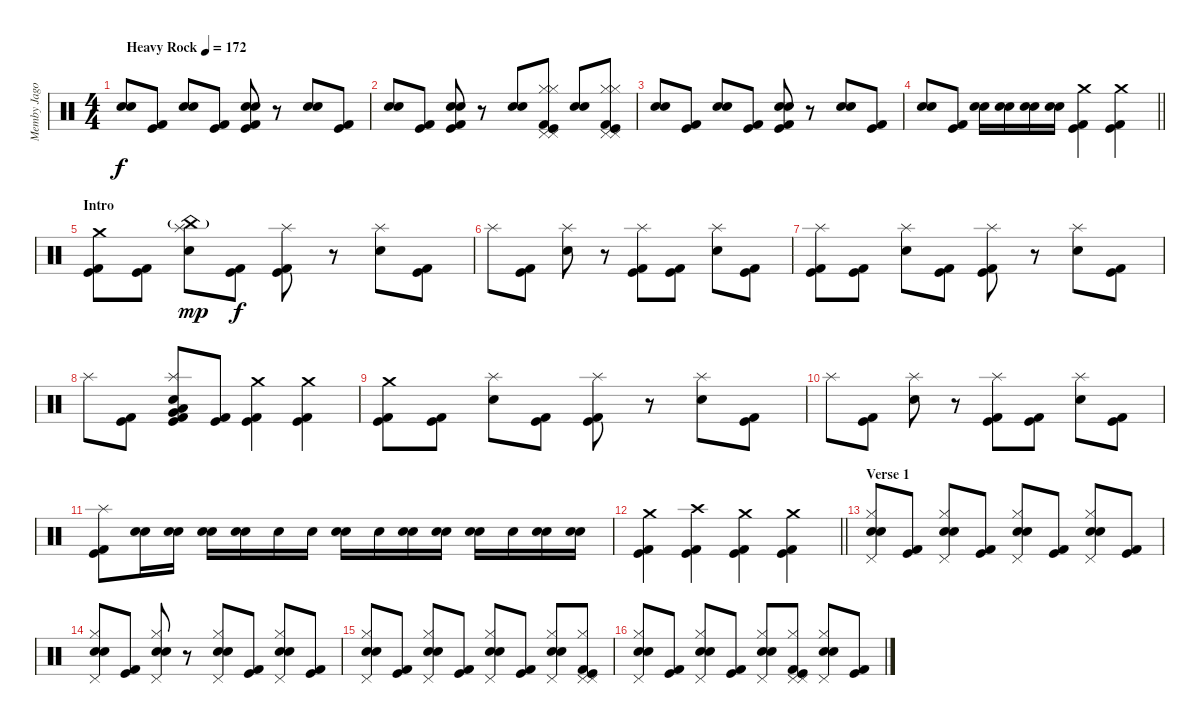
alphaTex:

\track ("Memby Jago" "Memby Jago") {instrument percussion}
\staff {score}
\articulation defaults
\ts (4 4)
\tempo (172 "Heavy Rock")
\clef neutral
\ks c
("Electric Snare (hit)" "Snare (hit) 2").8{dy f} ("Kick (hit)" "Kick (hit) 2").8 ("Electric Snare (hit)" "Snare (hit) 2").8 ("Kick (hit)" "Kick (hit) 2").8 ("Electric Snare (hit)" "Snare (hit) 2" "Kick (hit)" "Kick (hit) 2").8 r.8 ("Electric Snare (hit)" "Snare (hit) 2").8 ("Kick (hit)" "Kick (hit) 2").8 |
("Electric Snare (hit)" "Snare (hit) 2").8 ("Kick (hit)" "Kick (hit) 2").8 ("Electric Snare (hit)" "Snare (hit) 2" "Kick (hit)" "Kick (hit) 2").8 r.8 ("Electric Snare (hit)" "Snare (hit) 2").8 ("Hi-Hat (closed)" "Pedal Hi-Hat (hit)" "Pedal Hi-Hat (hit)" "Hi-Hat (closed)" "Kick (hit)" "Kick (hit) 2").8 ("Electric Snare (hit)" "Snare (hit) 2").8 ("Hi-Hat (closed)" "Pedal Hi-Hat (hit)" "Pedal Hi-Hat (hit)" "Hi-Hat (closed)" "Kick (hit)" "Kick (hit) 2").8 |
("Electric Snare (hit)" "Snare (hit) 2").8 ("Kick (hit)" "Kick (hit) 2").8 ("Electric Snare (hit)" "Snare (hit) 2").8 ("Kick (hit)" "Kick (hit) 2").8 ("Electric Snare (hit)" "Snare (hit) 2" "Kick (hit)" "Kick (hit) 2").8 r.8 ("Electric Snare (hit)" "Snare (hit) 2").8 ("Kick (hit)" "Kick (hit) 2").8 |
\barLineRight lightlight
("Electric Snare (hit)" "Snare (hit) 2").8 ("Kick (hit)" "Kick (hit) 2").8 ("Electric Snare (hit)" "Snare (hit) 2").16 ("Electric Snare (hit)" "Snare (hit) 2").16 ("Electric Snare (hit)" "Snare (hit) 2").16 ("Electric Snare (hit)" "Snare (hit) 2").16 ("Crash medium (hit)" "Kick (hit)" "Kick (hit) 2").4 ("Crash medium (hit)" "Kick (hit)" "Kick (hit) 2").4 |
\section ("" "Intro")
("Crash medium (hit)" "Kick (hit)" "Kick (hit) 2").8 ("Kick (hit)" "Kick (hit) 2").8 ("Splash (hit)" "China (hit)"{g} "Snare (hit) 2").8{dy mp} ("Kick (hit)" "Kick (hit) 2").8{dy f} ("Splash (hit)" "Kick (hit)" "Kick (hit) 2").8 r.8 ("Splash (hit)" "Snare (hit) 2").8 ("Kick (hit)" "Kick (hit) 2").8 |
"Splash (hit)".8 ("Kick (hit)" "Kick (hit) 2").8 ("Splash (hit)" "Snare (hit) 2").8 r.8 ("Splash (hit)" "Kick (hit)" "Kick (hit) 2").8 ("Kick (hit)" "Kick (hit) 2").8 ("Splash (hit)" "Snare (hit) 2").8 ("Kick (hit)" "Kick (hit) 2").8 |
("Splash (hit)" "Kick (hit)" "Kick (hit) 2").8 ("Kick (hit)" "Kick (hit) 2").8 ("Splash (hit)" "Snare (hit) 2").8 ("Kick (hit)" "Kick (hit) 2").8 ("Splash (hit)" "Kick (hit)" "Kick (hit) 2").8 r.8 ("Splash (hit)" "Snare (hit) 2").8 ("Kick (hit)" "Kick (hit) 2").8 |
"Splash (hit)".8 ("Kick (hit)" "Kick (hit) 2").8 ("Low Tom (hit)" "Splash (hit)" "Very Low Tom (hit)" "Snare (hit) 2" "Kick (hit)" "Kick (hit) 2").8 ("Kick (hit)" "Kick (hit) 2").8 ("Crash medium (hit)" "Kick (hit)" "Kick (hit) 2").4 ("Crash medium (hit)" "Kick (hit)" "Kick (hit) 2").4 |
("Crash medium (hit)" "Kick (hit)" "Kick (hit) 2").8 ("Kick (hit)" "Kick (hit) 2").8 ("Splash (hit)" "Snare (hit) 2").8 ("Kick (hit)" "Kick (hit) 2").8 ("Splash (hit)" "Kick (hit)" "Kick (hit) 2").8 r.8 ("Splash (hit)" "Snare (hit) 2").8 ("Kick (hit)" "Kick (hit) 2").8 |
"Splash (hit)".8 ("Kick (hit)" "Kick (hit) 2").8 ("Splash (hit)" "Snare (hit) 2").8 r.8 ("Splash (hit)" "Kick (hit)" "Kick (hit) 2").8 ("Kick (hit)" "Kick (hit) 2").8 ("Splash (hit)" "Snare (hit) 2").8 ("Kick (hit)" "Kick (hit) 2").8 |
("Splash (hit)" "Kick (hit)" "Kick (hit) 2").8 ("Electric Snare (hit)" "Snare (hit) 2").16 ("Electric Snare (hit)" "Snare (hit) 2").16 ("Electric Snare (hit)" "Snare (hit) 2").16 ("Electric Snare (hit)" "Snare (hit) 2").16 "Snare (hit) 2".16 "Snare (hit) 2".16 ("Electric Snare (hit)" "Snare (hit) 2").16 "Snare (hit) 2".16 ("Electric Snare (hit)" "Snare (hit) 2").16 ("Electric Snare (hit)" "Snare (hit) 2").16 ("Electric Snare (hit)" "Snare (hit) 2").16 "Snare (hit) 2".16 ("Electric Snare (hit)" "Snare (hit) 2").16 ("Electric Snare (hit)" "Snare (hit) 2").16 |
\barLineRight lightlight
("Crash medium (hit)" "Kick (hit)" "Kick (hit) 2").4 ("Crash high (hit)" "Kick (hit)" "Kick (hit) 2").4 ("Crash medium (hit)" "Kick (hit)" "Kick (hit) 2").4 ("Crash medium (hit)" "Kick (hit)" "Kick (hit) 2").4 |
\section ("" "Verse 1")
("Hi-Hat (closed)" "Pedal Hi-Hat (hit)" "Electric Snare (hit)" "Snare (hit) 2").8 ("Kick (hit)" "Kick (hit) 2").8 ("Hi-Hat (closed)" "Pedal Hi-Hat (hit)" "Electric Snare (hit)" "Snare (hit) 2").8 ("Kick (hit)" "Kick (hit) 2").8 ("Hi-Hat (closed)" "Pedal Hi-Hat (hit)" "Electric Snare (hit)" "Snare (hit) 2").8 ("Kick (hit)" "Kick (hit) 2").8 ("Hi-Hat (closed)" "Pedal Hi-Hat (hit)" "Electric Snare (hit)" "Snare (hit) 2").8 ("Kick (hit)" "Kick (hit) 2").8 |
("Hi-Hat (closed)" "Pedal Hi-Hat (hit)" "Electric Snare (hit)" "Snare (hit) 2").8 ("Kick (hit)" "Kick (hit) 2").8 ("Hi-Hat (closed)" "Pedal Hi-Hat (hit)" "Electric Snare (hit)" "Snare (hit) 2").8 r.8 ("Hi-Hat (closed)" "Pedal Hi-Hat (hit)" "Electric Snare (hit)" "Snare (hit) 2").8 ("Kick (hit)" "Kick (hit) 2").8 ("Hi-Hat (closed)" "Pedal Hi-Hat (hit)" "Electric Snare (hit)" "Snare (hit) 2").8 ("Kick (hit)" "Kick (hit) 2").8 |
("Hi-Hat (closed)" "Pedal Hi-Hat (hit)" "Electric Snare (hit)" "Snare (hit) 2").8 ("Kick (hit)" "Kick (hit) 2").8 ("Hi-Hat (closed)" "Pedal Hi-Hat (hit)" "Electric Snare (hit)" "Snare (hit) 2").8 ("Kick (hit)" "Kick (hit) 2").8 ("Hi-Hat (closed)" "Pedal Hi-Hat (hit)" "Electric Snare (hit)" "Snare (hit) 2").8 ("Kick (hit)" "Kick (hit) 2").8 ("Hi-Hat (closed)" "Pedal Hi-Hat (hit)" "Electric Snare (hit)" "Snare (hit) 2").8 ("Pedal Hi-Hat (hit)" "Pedal Hi-Hat (hit)" "Hi-Hat (closed)" "Kick (hit)" "Kick (hit) 2").8 |
("Hi-Hat (closed)" "Pedal Hi-Hat (hit)" "Electric Snare (hit)" "Snare (hit) 2").8 ("Kick (hit)" "Kick (hit) 2").8 ("Hi-Hat (closed)" "Pedal Hi-Hat (hit)" "Electric Snare (hit)" "Snare (hit) 2").8 ("Kick (hit)" "Kick (hit) 2").8 ("Hi-Hat (closed)" "Pedal Hi-Hat (hit)" "Electric Snare (hit)" "Snare (hit) 2").8 ("Pedal Hi-Hat (hit)" "Pedal Hi-Hat (hit)" "Hi-Hat (closed)" "Kick (hit)" "Kick (hit) 2").8 ("Hi-Hat (closed)" "Pedal Hi-Hat (hit)" "Electric Snare (hit)" "Snare (hit) 2").8 ("Kick (hit)" "Kick (hit) 2").8
